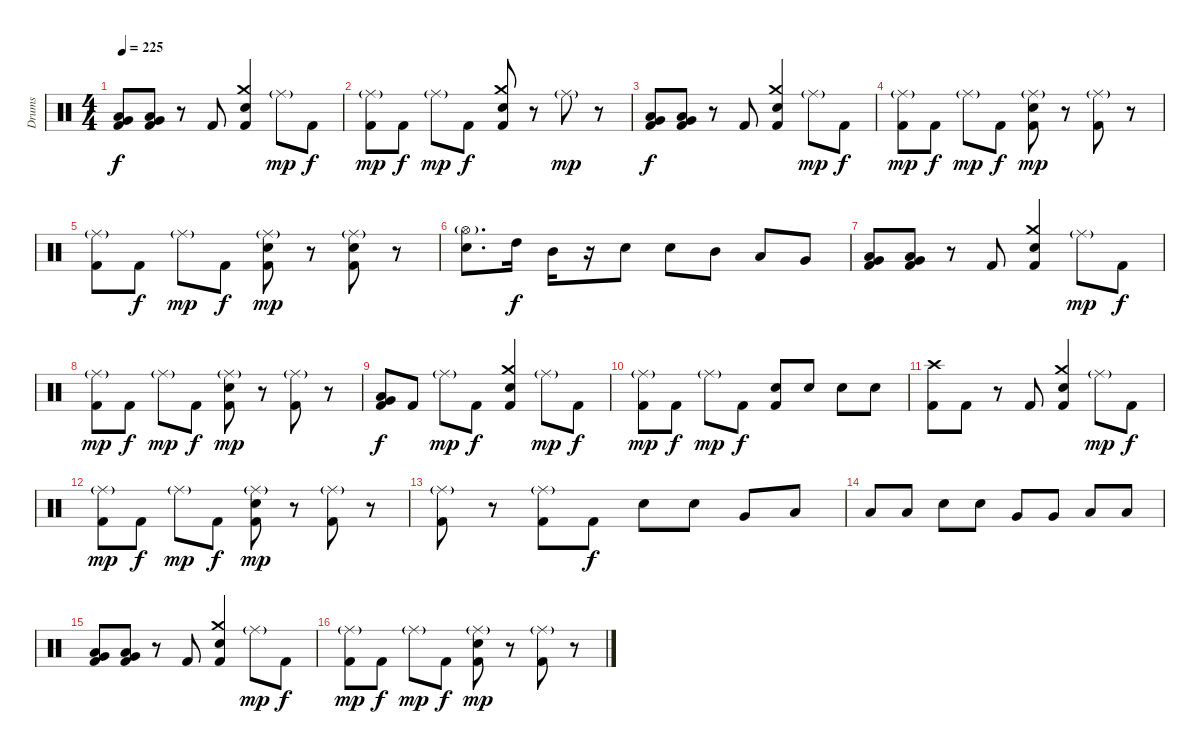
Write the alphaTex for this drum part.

\track ("Drums" "Drums") {instrument percussion}
\staff {score}
\articulation defaults
\ts (4 4)
\tempo 225
\clef neutral
\ks c
("Very Low Tom (hit)" "Low Floor Tom (hit)" "Kick (hit) 2").8{dy f} ("Very Low Tom (hit)" "Low Floor Tom (hit)" "Kick (hit) 2").8 r.8 "Kick (hit) 2".8 ("Crash medium (hit)" "Snare (hit) 2" "Kick (hit) 2").4 "Ride (middle)"{g}.8{dy mp} "Kick (hit) 2".8{dy f} |
("Ride (middle)"{g} "Kick (hit) 2").8{dy mp} "Kick (hit) 2".8{dy f} "Ride (middle)"{g}.8{dy mp} "Kick (hit) 2".8{dy f} ("Crash medium (hit)" "Snare (hit) 2" "Kick (hit) 2").8 r.8 "Ride (middle)"{g}.8{dy mp} r.8 |
("Very Low Tom (hit)" "Low Tom (hit)" "Kick (hit) 2").8{dy f} ("Very Low Tom (hit)" "Low Tom (hit)" "Kick (hit) 2").8 r.8 "Kick (hit) 2".8 ("Crash medium (hit)" "Snare (hit) 2" "Kick (hit) 2").4 "Ride (middle)"{g}.8{dy mp} "Kick (hit) 2".8{dy f} |
("Ride (middle)"{g} "Kick (hit) 2").8{dy mp} "Kick (hit) 2".8{dy f} "Ride (middle)"{g}.8{dy mp} "Kick (hit) 2".8{dy f} ("Snare (hit) 2" "Ride (middle)"{g} "Kick (hit) 2").8{dy mp} r.8 ("Ride (middle)"{g} "Kick (hit) 2").8 r.8 |
("Ride (middle)"{g} "Kick (hit) 2").8 "Kick (hit) 2".8{dy f} "Ride (middle)"{g}.8{dy mp} "Kick (hit) 2".8{dy f} ("Snare (hit) 2" "Ride (middle)"{g} "Kick (hit) 2").8{dy mp} r.8 ("Snare (hit) 2" "Ride (middle)"{g} "Kick (hit) 2").8 r.8 |
("Snare (hit) 2" "Hi-Hat (open)"{g}).8{d} "High Tom (hit)".16{dy f} "Mid Tom (hit)".16 r.16 "Snare (hit) 2".8 "Snare (hit) 2".8 "Mid Tom (hit)".8 "Low Tom (hit)".8 "Very Low Tom (hit)".8 |
("Very Low Tom (hit)" "Low Tom (hit)" "Kick (hit) 2").8 ("Very Low Tom (hit)" "Low Tom (hit)" "Kick (hit) 2").8 r.8 "Kick (hit) 2".8 ("Crash medium (hit)" "Snare (hit) 2" "Kick (hit) 2").4 "Ride (middle)"{g}.8{dy mp} "Kick (hit) 2".8{dy f} |
("Ride (middle)"{g} "Kick (hit) 2").8{dy mp} "Kick (hit) 2".8{dy f} "Ride (middle)"{g}.8{dy mp} "Kick (hit) 2".8{dy f} ("Snare (hit) 2" "Ride (middle)"{g} "Kick (hit) 2").8{dy mp} r.8 ("Ride (middle)"{g} "Kick (hit) 2").8 r.8 |
("Very Low Tom (hit)" "Low Floor Tom (hit)" "Kick (hit) 2").8{dy f} "Kick (hit) 2".8 "Ride (middle)"{g}.8{dy mp} "Kick (hit) 2".8{dy f} ("Crash medium (hit)" "Snare (hit) 2" "Kick (hit) 2").4 "Ride (middle)"{g}.8{dy mp} "Kick (hit) 2".8{dy f} |
("Ride (middle)"{g} "Kick (hit) 2").8{dy mp} "Kick (hit) 2".8{dy f} "Ride (middle)"{g}.8{dy mp} "Kick (hit) 2".8{dy f} ("Snare (hit) 2" "Kick (hit) 2").8 "Snare (hit) 2".8 "Snare (hit) 2".8 "Snare (hit) 2".8 |
("Crash high (hit)" "Kick (hit) 2").8 "Kick (hit) 2".8 r.8 "Kick (hit) 2".8 ("Crash medium (hit)" "Snare (hit) 2" "Kick (hit) 2").4 "Ride (middle)"{g}.8{dy mp} "Kick (hit) 2".8{dy f} |
("Ride (middle)"{g} "Kick (hit) 2").8{dy mp} "Kick (hit) 2".8{dy f} "Ride (middle)"{g}.8{dy mp} "Kick (hit) 2".8{dy f} ("Snare (hit) 2" "Ride (middle)"{g} "Kick (hit) 2").8{dy mp} r.8 ("Ride (middle)"{g} "Kick (hit) 2").8 r.8 |
("Ride (middle)"{g} "Kick (hit) 2").8 r.8 ("Ride (middle)"{g} "Kick (hit) 2").8 "Kick (hit) 2".8{dy f} "Snare (hit) 2".8 "Snare (hit) 2".8 "Very Low Tom (hit)".8 "Low Floor Tom (hit)".8 |
"Low Floor Tom (hit)".8 "Low Floor Tom (hit)".8 "Snare (hit) 2".8 "Snare (hit) 2".8 "Very Low Tom (hit)".8 "Very Low Tom (hit)".8 "Low Floor Tom (hit)".8 "Low Floor Tom (hit)".8 |
("Very Low Tom (hit)" "Low Tom (hit)" "Kick (hit) 2").8 ("Very Low Tom (hit)" "Low Tom (hit)" "Kick (hit) 2").8 r.8 "Kick (hit) 2".8 ("Crash medium (hit)" "Snare (hit) 2" "Kick (hit) 2").4 "Ride (middle)"{g}.8{dy mp} "Kick (hit) 2".8{dy f} |
("Ride (middle)"{g} "Kick (hit) 2").8{dy mp} "Kick (hit) 2".8{dy f} "Ride (middle)"{g}.8{dy mp} "Kick (hit) 2".8{dy f} ("Snare (hit) 2" "Ride (middle)"{g} "Kick (hit) 2").8{dy mp} r.8 ("Ride (middle)"{g} "Kick (hit) 2").8 r.8
